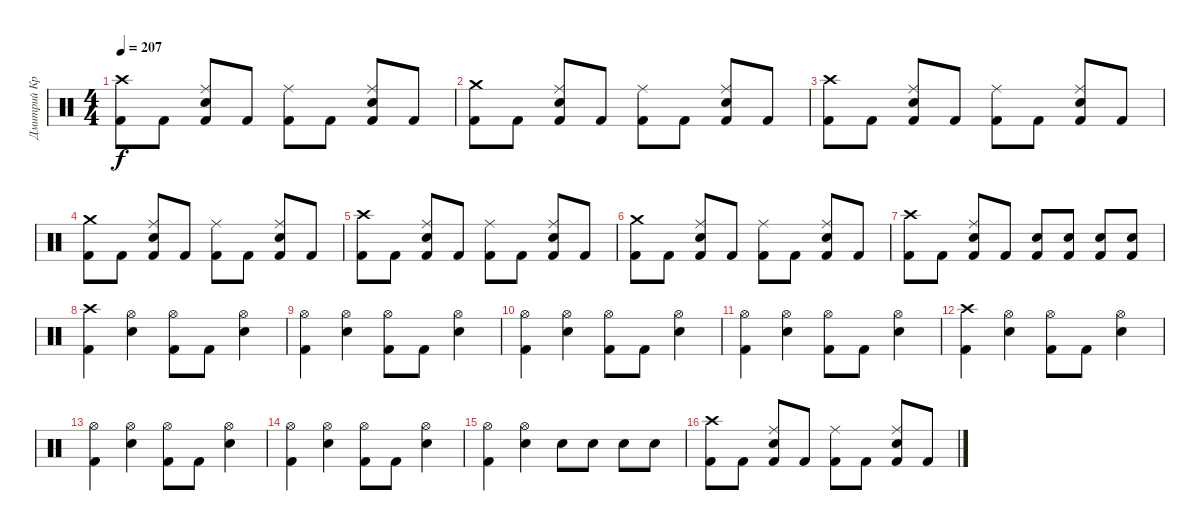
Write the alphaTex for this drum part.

\track ("Дмитрий Кривенков" "Дмитрий Кр") {instrument percussion}
\staff {score}
\articulation defaults
\ts (4 4)
\tempo 207
\clef neutral
\ks c
("Crash high (hit)" "Kick (hit) 2").8{dy f} "Kick (hit) 2".8 ("Ride (middle)" "Electric Snare (hit)" "Kick (hit) 2").8 "Kick (hit) 2".8 ("Ride (middle)" "Kick (hit) 2").8 "Kick (hit) 2".8 ("Ride (middle)" "Electric Snare (hit)" "Kick (hit) 2").8 "Kick (hit) 2".8 |
("Crash medium (hit)" "Kick (hit) 2").8 "Kick (hit) 2".8 ("Ride (middle)" "Electric Snare (hit)" "Kick (hit) 2").8 "Kick (hit) 2".8 ("Ride (middle)" "Kick (hit) 2").8 "Kick (hit) 2".8 ("Ride (middle)" "Electric Snare (hit)" "Kick (hit) 2").8 "Kick (hit) 2".8 |
("Crash high (hit)" "Kick (hit) 2").8 "Kick (hit) 2".8 ("Ride (middle)" "Electric Snare (hit)" "Kick (hit) 2").8 "Kick (hit) 2".8 ("Ride (middle)" "Kick (hit) 2").8 "Kick (hit) 2".8 ("Ride (middle)" "Electric Snare (hit)" "Kick (hit) 2").8 "Kick (hit) 2".8 |
("Crash medium (hit)" "Kick (hit) 2").8 "Kick (hit) 2".8 ("Ride (middle)" "Electric Snare (hit)" "Kick (hit) 2").8 "Kick (hit) 2".8 ("Ride (middle)" "Kick (hit) 2").8 "Kick (hit) 2".8 ("Ride (middle)" "Electric Snare (hit)" "Kick (hit) 2").8 "Kick (hit) 2".8 |
("Crash high (hit)" "Kick (hit) 2").8 "Kick (hit) 2".8 ("Ride (middle)" "Electric Snare (hit)" "Kick (hit) 2").8 "Kick (hit) 2".8 ("Ride (middle)" "Kick (hit) 2").8 "Kick (hit) 2".8 ("Ride (middle)" "Electric Snare (hit)" "Kick (hit) 2").8 "Kick (hit) 2".8 |
("Crash medium (hit)" "Kick (hit) 2").8 "Kick (hit) 2".8 ("Ride (middle)" "Electric Snare (hit)" "Kick (hit) 2").8 "Kick (hit) 2".8 ("Ride (middle)" "Kick (hit) 2").8 "Kick (hit) 2".8 ("Ride (middle)" "Electric Snare (hit)" "Kick (hit) 2").8 "Kick (hit) 2".8 |
("Crash high (hit)" "Kick (hit) 2").8 "Kick (hit) 2".8 ("Ride (middle)" "Electric Snare (hit)" "Kick (hit) 2").8 "Kick (hit) 2".8 ("Electric Snare (hit)" "Kick (hit) 2").8 ("Electric Snare (hit)" "Kick (hit) 2").8 ("Electric Snare (hit)" "Kick (hit) 2").8 ("Electric Snare (hit)" "Kick (hit) 2").8 |
("Crash high (hit)" "Kick (hit) 2").4 ("Hi-Hat (open)" "Electric Snare (hit)").4 ("Hi-Hat (open)" "Kick (hit) 2").8 "Kick (hit) 2".8 ("Hi-Hat (open)" "Electric Snare (hit)").4 |
("Hi-Hat (open)" "Kick (hit) 2").4 ("Hi-Hat (open)" "Electric Snare (hit)").4 ("Hi-Hat (open)" "Kick (hit) 2").8 "Kick (hit) 2".8 ("Hi-Hat (open)" "Electric Snare (hit)").4 |
("Hi-Hat (open)" "Kick (hit) 2").4 ("Hi-Hat (open)" "Electric Snare (hit)").4 ("Hi-Hat (open)" "Kick (hit) 2").8 "Kick (hit) 2".8 ("Hi-Hat (open)" "Electric Snare (hit)").4 |
("Hi-Hat (open)" "Kick (hit) 2").4 ("Hi-Hat (open)" "Electric Snare (hit)").4 ("Hi-Hat (open)" "Kick (hit) 2").8 "Kick (hit) 2".8 ("Hi-Hat (open)" "Electric Snare (hit)").4 |
("Crash high (hit)" "Kick (hit) 2").4 ("Hi-Hat (open)" "Electric Snare (hit)").4 ("Hi-Hat (open)" "Kick (hit) 2").8 "Kick (hit) 2".8 ("Hi-Hat (open)" "Electric Snare (hit)").4 |
("Hi-Hat (open)" "Kick (hit) 2").4 ("Hi-Hat (open)" "Electric Snare (hit)").4 ("Hi-Hat (open)" "Kick (hit) 2").8 "Kick (hit) 2".8 ("Hi-Hat (open)" "Electric Snare (hit)").4 |
("Hi-Hat (open)" "Kick (hit) 2").4 ("Hi-Hat (open)" "Electric Snare (hit)").4 ("Hi-Hat (open)" "Kick (hit) 2").8 "Kick (hit) 2".8 ("Hi-Hat (open)" "Electric Snare (hit)").4 |
("Hi-Hat (open)" "Kick (hit) 2").4 ("Hi-Hat (open)" "Electric Snare (hit)").4 "Electric Snare (hit)".8 "Electric Snare (hit)".8 "Electric Snare (hit)".8 "Electric Snare (hit)".8 |
("Crash high (hit)" "Kick (hit) 2").8 "Kick (hit) 2".8 ("Ride (middle)" "Electric Snare (hit)" "Kick (hit) 2").8 "Kick (hit) 2".8 ("Ride (middle)" "Kick (hit) 2").8 "Kick (hit) 2".8 ("Ride (middle)" "Electric Snare (hit)" "Kick (hit) 2").8 "Kick (hit) 2".8
